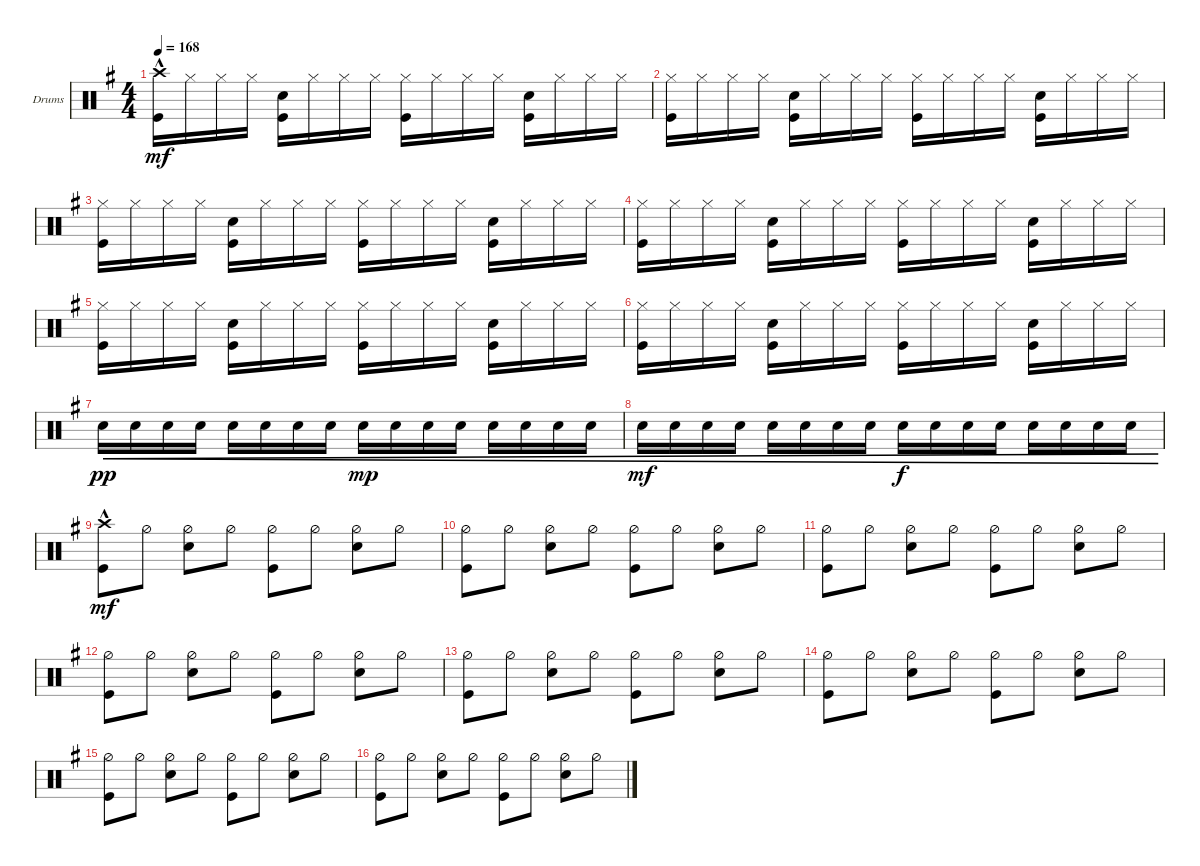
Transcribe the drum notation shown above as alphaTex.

\defaultSystemsLayout 4
\bracketExtendMode groupsimilarinstruments
\firstSystemTrackNameOrientation horizontal
\otherSystemsTrackNameOrientation horizontal
\track ("Drumkit" "Drums") {instrument percussion}
\staff {score}
\articulation defaults
\ts (4 4)
\tempo 168
\clef neutral
\ks eminor
("Crash high (hit)"{hac} "Kick (hit)").16{dy mf} "Hi-Hat (closed)".16 "Hi-Hat (closed)".16 "Hi-Hat (closed)".16 ("Snare (hit) 2" "Kick (hit)").16 "Hi-Hat (closed)".16 "Hi-Hat (closed)".16 "Hi-Hat (closed)".16 ("Hi-Hat (closed)" "Kick (hit)").16 "Hi-Hat (closed)".16 "Hi-Hat (closed)".16 "Hi-Hat (closed)".16 ("Snare (hit) 2" "Kick (hit)").16 "Hi-Hat (closed)".16 "Hi-Hat (closed)".16 "Hi-Hat (closed)".16 |
("Hi-Hat (closed)" "Kick (hit)").16 "Hi-Hat (closed)".16 "Hi-Hat (closed)".16 "Hi-Hat (closed)".16 ("Snare (hit) 2" "Kick (hit)").16 "Hi-Hat (closed)".16 "Hi-Hat (closed)".16 "Hi-Hat (closed)".16 ("Hi-Hat (closed)" "Kick (hit)").16 "Hi-Hat (closed)".16 "Hi-Hat (closed)".16 "Hi-Hat (closed)".16 ("Snare (hit) 2" "Kick (hit)").16 "Hi-Hat (closed)".16 "Hi-Hat (closed)".16 "Hi-Hat (closed)".16 |
("Hi-Hat (closed)" "Kick (hit)").16 "Hi-Hat (closed)".16 "Hi-Hat (closed)".16 "Hi-Hat (closed)".16 ("Snare (hit) 2" "Kick (hit)").16 "Hi-Hat (closed)".16 "Hi-Hat (closed)".16 "Hi-Hat (closed)".16 ("Hi-Hat (closed)" "Kick (hit)").16 "Hi-Hat (closed)".16 "Hi-Hat (closed)".16 "Hi-Hat (closed)".16 ("Snare (hit) 2" "Kick (hit)").16 "Hi-Hat (closed)".16 "Hi-Hat (closed)".16 "Hi-Hat (closed)".16 |
("Hi-Hat (closed)" "Kick (hit)").16 "Hi-Hat (closed)".16 "Hi-Hat (closed)".16 "Hi-Hat (closed)".16 ("Snare (hit) 2" "Kick (hit)").16 "Hi-Hat (closed)".16 "Hi-Hat (closed)".16 "Hi-Hat (closed)".16 ("Hi-Hat (closed)" "Kick (hit)").16 "Hi-Hat (closed)".16 "Hi-Hat (closed)".16 "Hi-Hat (closed)".16 ("Snare (hit) 2" "Kick (hit)").16 "Hi-Hat (closed)".16 "Hi-Hat (closed)".16 "Hi-Hat (closed)".16 |
("Hi-Hat (closed)" "Kick (hit)").16 "Hi-Hat (closed)".16 "Hi-Hat (closed)".16 "Hi-Hat (closed)".16 ("Snare (hit) 2" "Kick (hit)").16 "Hi-Hat (closed)".16 "Hi-Hat (closed)".16 "Hi-Hat (closed)".16 ("Hi-Hat (closed)" "Kick (hit)").16 "Hi-Hat (closed)".16 "Hi-Hat (closed)".16 "Hi-Hat (closed)".16 ("Snare (hit) 2" "Kick (hit)").16 "Hi-Hat (closed)".16 "Hi-Hat (closed)".16 "Hi-Hat (closed)".16 |
("Hi-Hat (closed)" "Kick (hit)").16 "Hi-Hat (closed)".16 "Hi-Hat (closed)".16 "Hi-Hat (closed)".16 ("Snare (hit) 2" "Kick (hit)").16 "Hi-Hat (closed)".16 "Hi-Hat (closed)".16 "Hi-Hat (closed)".16 ("Hi-Hat (closed)" "Kick (hit)").16 "Hi-Hat (closed)".16 "Hi-Hat (closed)".16 "Hi-Hat (closed)".16 ("Snare (hit) 2" "Kick (hit)").16 "Hi-Hat (closed)".16 "Hi-Hat (closed)".16 "Hi-Hat (closed)".16 |
"Snare (hit) 2".16{cre dy pp} "Snare (hit) 2".16{cre} "Snare (hit) 2".16{cre} "Snare (hit) 2".16{cre} "Snare (hit) 2".16{cre} "Snare (hit) 2".16{cre} "Snare (hit) 2".16{cre} "Snare (hit) 2".16{cre} "Snare (hit) 2".16{cre dy mp} "Snare (hit) 2".16{cre} "Snare (hit) 2".16{cre} "Snare (hit) 2".16{cre} "Snare (hit) 2".16{cre} "Snare (hit) 2".16{cre} "Snare (hit) 2".16{cre} "Snare (hit) 2".16{cre} |
"Snare (hit) 2".16{cre dy mf} "Snare (hit) 2".16{cre} "Snare (hit) 2".16{cre} "Snare (hit) 2".16{cre} "Snare (hit) 2".16{cre} "Snare (hit) 2".16{cre} "Snare (hit) 2".16{cre} "Snare (hit) 2".16{cre} "Snare (hit) 2".16{cre dy f} "Snare (hit) 2".16{cre} "Snare (hit) 2".16{cre} "Snare (hit) 2".16{cre} "Snare (hit) 2".16{cre} "Snare (hit) 2".16{cre} "Snare (hit) 2".16{cre} "Snare (hit) 2".16{cre} |
("Kick (hit)" "Crash high (hit)"{hac}).8{dy mf} "Hi-Hat (half)".8 ("Hi-Hat (half)" "Snare (hit) 2").8 "Hi-Hat (half)".8 ("Hi-Hat (half)" "Kick (hit)").8 "Hi-Hat (half)".8 ("Hi-Hat (half)" "Snare (hit) 2").8 "Hi-Hat (half)".8 |
("Hi-Hat (half)" "Kick (hit)").8 "Hi-Hat (half)".8 ("Hi-Hat (half)" "Snare (hit) 2").8 "Hi-Hat (half)".8 ("Hi-Hat (half)" "Kick (hit)").8 "Hi-Hat (half)".8 ("Hi-Hat (half)" "Snare (hit) 2").8 "Hi-Hat (half)".8 |
("Hi-Hat (half)" "Kick (hit)").8 "Hi-Hat (half)".8 ("Hi-Hat (half)" "Snare (hit) 2").8 "Hi-Hat (half)".8 ("Hi-Hat (half)" "Kick (hit)").8 "Hi-Hat (half)".8 ("Hi-Hat (half)" "Snare (hit) 2").8 "Hi-Hat (half)".8 |
("Hi-Hat (half)" "Kick (hit)").8 "Hi-Hat (half)".8 ("Hi-Hat (half)" "Snare (hit) 2").8 "Hi-Hat (half)".8 ("Hi-Hat (half)" "Kick (hit)").8 "Hi-Hat (half)".8 ("Hi-Hat (half)" "Snare (hit) 2").8 "Hi-Hat (half)".8 |
("Hi-Hat (half)" "Kick (hit)").8 "Hi-Hat (half)".8 ("Hi-Hat (half)" "Snare (hit) 2").8 "Hi-Hat (half)".8 ("Hi-Hat (half)" "Kick (hit)").8 "Hi-Hat (half)".8 ("Hi-Hat (half)" "Snare (hit) 2").8 "Hi-Hat (half)".8 |
("Hi-Hat (half)" "Kick (hit)").8 "Hi-Hat (half)".8 ("Hi-Hat (half)" "Snare (hit) 2").8 "Hi-Hat (half)".8 ("Hi-Hat (half)" "Kick (hit)").8 "Hi-Hat (half)".8 ("Hi-Hat (half)" "Snare (hit) 2").8 "Hi-Hat (half)".8 |
("Hi-Hat (half)" "Kick (hit)").8 "Hi-Hat (half)".8 ("Hi-Hat (half)" "Snare (hit) 2").8 "Hi-Hat (half)".8 ("Hi-Hat (half)" "Kick (hit)").8 "Hi-Hat (half)".8 ("Hi-Hat (half)" "Snare (hit) 2").8 "Hi-Hat (half)".8 |
("Hi-Hat (half)" "Kick (hit)").8 "Hi-Hat (half)".8 ("Hi-Hat (half)" "Snare (hit) 2").8 "Hi-Hat (half)".8 ("Hi-Hat (half)" "Kick (hit)").8 "Hi-Hat (half)".8 ("Hi-Hat (half)" "Snare (hit) 2").8 "Hi-Hat (half)".8
